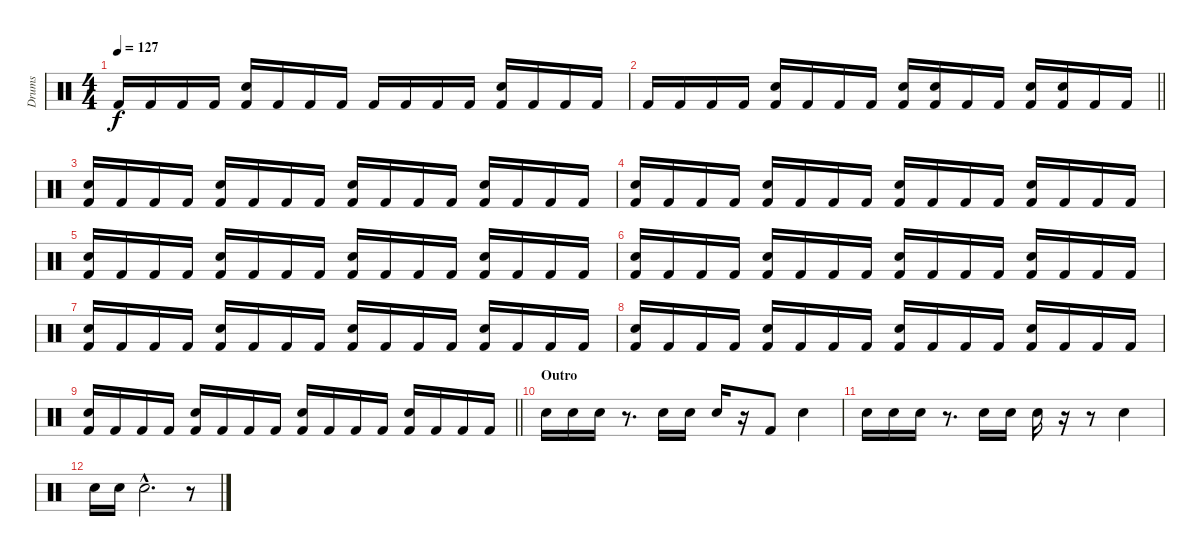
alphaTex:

\track ("Drums" "Drums") {instrument percussion}
\staff {score}
\articulation defaults
\ts (4 4)
\tempo 127
\clef neutral
\ks c "Kick (hit) 2".16{dy f} "Kick (hit) 2".16 "Kick (hit) 2".16 "Kick (hit) 2".16
("Kick (hit) 2" "Electric Snare (hit)").16 "Kick (hit) 2".16 "Kick (hit) 2".16 "Kick (hit) 2".16 "Kick (hit) 2".16 "Kick (hit) 2".16 "Kick (hit) 2".16 "Kick (hit) 2".16 ("Kick (hit) 2" "Electric Snare (hit)").16 "Kick (hit) 2".16 "Kick (hit) 2".16 "Kick (hit) 2".16 |
\barLineRight lightlight "Kick (hit) 2".16 "Kick (hit) 2".16 "Kick (hit) 2".16 "Kick (hit) 2".16
("Kick (hit) 2" "Electric Snare (hit)").16 "Kick (hit) 2".16 "Kick (hit) 2".16 "Kick (hit) 2".16 ("Kick (hit) 2" "Electric Snare (hit)").16 ("Kick (hit) 2" "Electric Snare (hit)").16 "Kick (hit) 2".16 "Kick (hit) 2".16 ("Kick (hit) 2" "Electric Snare (hit)").16 ("Kick (hit) 2" "Electric Snare (hit)").16 "Kick (hit) 2".16 "Kick (hit) 2".16 |
\section ("" "")
("Kick (hit) 2" "Electric Snare (hit)").16 "Kick (hit) 2".16 "Kick (hit) 2".16 "Kick (hit) 2".16 ("Kick (hit) 2" "Electric Snare (hit)").16 "Kick (hit) 2".16 "Kick (hit) 2".16 "Kick (hit) 2".16 ("Kick (hit) 2" "Electric Snare (hit)").16 "Kick (hit) 2".16 "Kick (hit) 2".16 "Kick (hit) 2".16 ("Kick (hit) 2" "Electric Snare (hit)").16 "Kick (hit) 2".16 "Kick (hit) 2".16 "Kick (hit) 2".16 |
("Kick (hit) 2" "Electric Snare (hit)").16 "Kick (hit) 2".16 "Kick (hit) 2".16 "Kick (hit) 2".16 ("Kick (hit) 2" "Electric Snare (hit)").16 "Kick (hit) 2".16 "Kick (hit) 2".16 "Kick (hit) 2".16 ("Kick (hit) 2" "Electric Snare (hit)").16 "Kick (hit) 2".16 "Kick (hit) 2".16 "Kick (hit) 2".16 ("Kick (hit) 2" "Electric Snare (hit)").16 "Kick (hit) 2".16 "Kick (hit) 2".16 "Kick (hit) 2".16 |
("Kick (hit) 2" "Electric Snare (hit)").16 "Kick (hit) 2".16 "Kick (hit) 2".16 "Kick (hit) 2".16 ("Kick (hit) 2" "Electric Snare (hit)").16 "Kick (hit) 2".16 "Kick (hit) 2".16 "Kick (hit) 2".16 ("Kick (hit) 2" "Electric Snare (hit)").16 "Kick (hit) 2".16 "Kick (hit) 2".16 "Kick (hit) 2".16 ("Kick (hit) 2" "Electric Snare (hit)").16 "Kick (hit) 2".16 "Kick (hit) 2".16 "Kick (hit) 2".16 |
("Kick (hit) 2" "Electric Snare (hit)").16 "Kick (hit) 2".16 "Kick (hit) 2".16 "Kick (hit) 2".16 ("Kick (hit) 2" "Electric Snare (hit)").16 "Kick (hit) 2".16 "Kick (hit) 2".16 "Kick (hit) 2".16 ("Kick (hit) 2" "Electric Snare (hit)").16 "Kick (hit) 2".16 "Kick (hit) 2".16 "Kick (hit) 2".16 ("Kick (hit) 2" "Electric Snare (hit)").16 "Kick (hit) 2".16 "Kick (hit) 2".16 "Kick (hit) 2".16 |
("Kick (hit) 2" "Electric Snare (hit)").16 "Kick (hit) 2".16 "Kick (hit) 2".16 "Kick (hit) 2".16 ("Kick (hit) 2" "Electric Snare (hit)").16 "Kick (hit) 2".16 "Kick (hit) 2".16 "Kick (hit) 2".16 ("Kick (hit) 2" "Electric Snare (hit)").16 "Kick (hit) 2".16 "Kick (hit) 2".16 "Kick (hit) 2".16 ("Kick (hit) 2" "Electric Snare (hit)").16 "Kick (hit) 2".16 "Kick (hit) 2".16 "Kick (hit) 2".16 |
("Kick (hit) 2" "Electric Snare (hit)").16 "Kick (hit) 2".16 "Kick (hit) 2".16 "Kick (hit) 2".16 ("Kick (hit) 2" "Electric Snare (hit)").16 "Kick (hit) 2".16 "Kick (hit) 2".16 "Kick (hit) 2".16 ("Kick (hit) 2" "Electric Snare (hit)").16 "Kick (hit) 2".16 "Kick (hit) 2".16 "Kick (hit) 2".16 ("Kick (hit) 2" "Electric Snare (hit)").16 "Kick (hit) 2".16 "Kick (hit) 2".16 "Kick (hit) 2".16 |
\barLineRight lightlight
("Kick (hit) 2" "Electric Snare (hit)").16 "Kick (hit) 2".16 "Kick (hit) 2".16 "Kick (hit) 2".16 ("Kick (hit) 2" "Electric Snare (hit)").16 "Kick (hit) 2".16 "Kick (hit) 2".16 "Kick (hit) 2".16 ("Kick (hit) 2" "Electric Snare (hit)").16 "Kick (hit) 2".16 "Kick (hit) 2".16 "Kick (hit) 2".16 ("Kick (hit) 2" "Electric Snare (hit)").16 "Kick (hit) 2".16 "Kick (hit) 2".16 "Kick (hit) 2".16 |
\section ("" "Outro")
"Electric Snare (hit)".16 "Electric Snare (hit)".16 "Electric Snare (hit)".16 r.8{d} "Electric Snare (hit)".16 "Electric Snare (hit)".16 "Electric Snare (hit)".16 r.16 "Kick (hit) 2".8 "Electric Snare (hit)".4 |
"Electric Snare (hit)".16 "Electric Snare (hit)".16 "Electric Snare (hit)".16 r.8{d} "Electric Snare (hit)".16 "Electric Snare (hit)".16 "Electric Snare (hit)".16 r.16 r.8 "Electric Snare (hit)".4 |
"Electric Snare (hit)".16 "Electric Snare (hit)".16 "Electric Snare (hit)"{hac}.2{d} r.8
